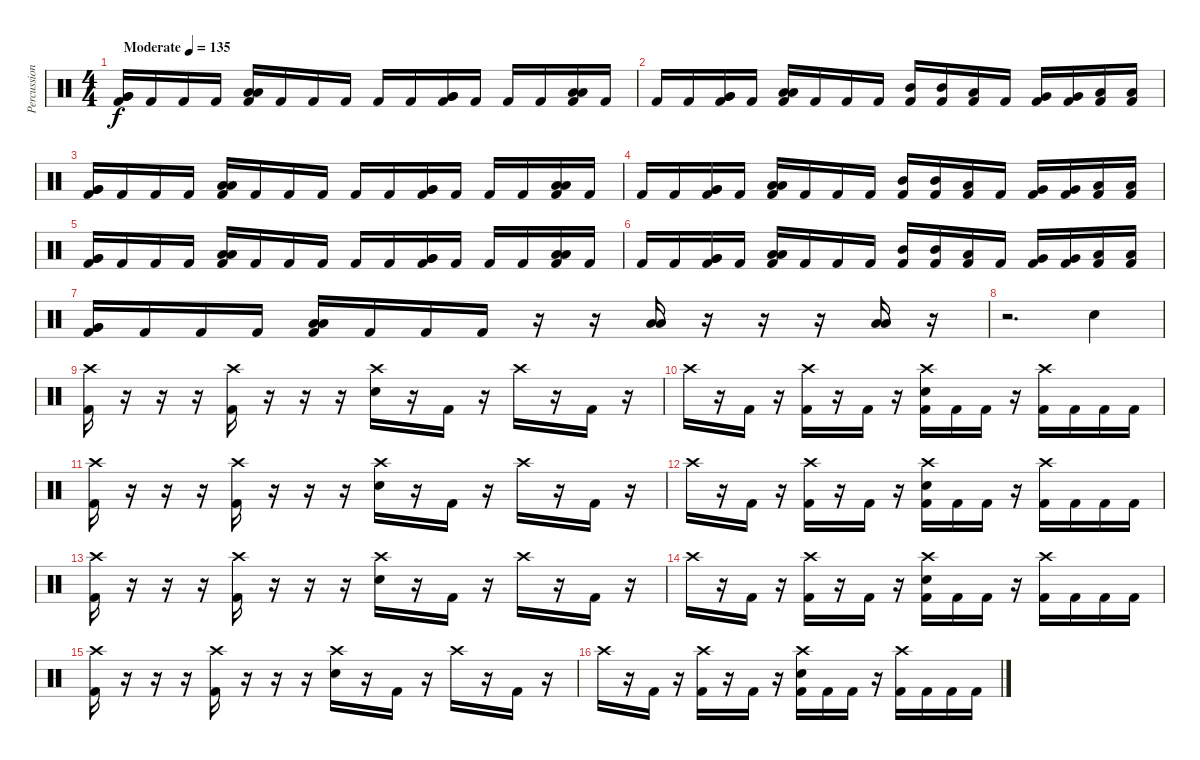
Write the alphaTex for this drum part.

\track ("Percussions" "Percussion") {instrument percussion}
\staff {score}
\articulation defaults
\ts (4 4)
\tempo (135 "Moderate")
\clef neutral
\ks c
("Very Low Tom (hit)" "Very Low Tom (hit)" "Kick (hit) 2").16{dy f} "Kick (hit) 2".16 "Kick (hit) 2".16 "Kick (hit) 2".16 ("Low Tom (hit)" "Low Tom (hit)" "Kick (hit) 2").16 "Kick (hit) 2".16 "Kick (hit) 2".16 "Kick (hit) 2".16 "Kick (hit) 2".16 "Kick (hit) 2".16 ("Very Low Tom (hit)" "Very Low Tom (hit)" "Kick (hit) 2").16 "Kick (hit) 2".16 "Kick (hit) 2".16 "Kick (hit) 2".16 ("Low Tom (hit)" "Low Tom (hit)" "Kick (hit) 2").16 "Kick (hit) 2".16 |
"Kick (hit) 2".16 "Kick (hit) 2".16 ("Very Low Tom (hit)" "Very Low Tom (hit)" "Kick (hit) 2").16 "Kick (hit) 2".16 ("Low Tom (hit)" "Low Tom (hit)" "Kick (hit) 2").16 "Kick (hit) 2".16 "Kick (hit) 2".16 "Kick (hit) 2".16 ("Mid Tom (hit)" "Kick (hit) 2").16 ("Mid Tom (hit)" "Kick (hit) 2").16 ("Low Tom (hit)" "Kick (hit) 2").16 "Kick (hit) 2".16 ("Very Low Tom (hit)" "Kick (hit) 2").16 ("Very Low Tom (hit)" "Kick (hit) 2").16 ("Low Floor Tom (hit)" "Kick (hit) 2").16 ("Low Floor Tom (hit)" "Kick (hit) 2").16 |
("Very Low Tom (hit)" "Very Low Tom (hit)" "Kick (hit) 2").16 "Kick (hit) 2".16 "Kick (hit) 2".16 "Kick (hit) 2".16 ("Low Tom (hit)" "Low Tom (hit)" "Kick (hit) 2").16 "Kick (hit) 2".16 "Kick (hit) 2".16 "Kick (hit) 2".16 "Kick (hit) 2".16 "Kick (hit) 2".16 ("Very Low Tom (hit)" "Very Low Tom (hit)" "Kick (hit) 2").16 "Kick (hit) 2".16 "Kick (hit) 2".16 "Kick (hit) 2".16 ("Low Tom (hit)" "Low Tom (hit)" "Kick (hit) 2").16 "Kick (hit) 2".16 |
"Kick (hit) 2".16 "Kick (hit) 2".16 ("Very Low Tom (hit)" "Very Low Tom (hit)" "Kick (hit) 2").16 "Kick (hit) 2".16 ("Low Tom (hit)" "Low Tom (hit)" "Kick (hit) 2").16 "Kick (hit) 2".16 "Kick (hit) 2".16 "Kick (hit) 2".16 ("Mid Tom (hit)" "Kick (hit) 2").16 ("Mid Tom (hit)" "Kick (hit) 2").16 ("Low Tom (hit)" "Kick (hit) 2").16 "Kick (hit) 2".16 ("Very Low Tom (hit)" "Kick (hit) 2").16 ("Very Low Tom (hit)" "Kick (hit) 2").16 ("Low Floor Tom (hit)" "Kick (hit) 2").16 ("Low Floor Tom (hit)" "Kick (hit) 2").16 |
("Very Low Tom (hit)" "Very Low Tom (hit)" "Kick (hit) 2").16 "Kick (hit) 2".16 "Kick (hit) 2".16 "Kick (hit) 2".16 ("Low Tom (hit)" "Low Tom (hit)" "Kick (hit) 2").16 "Kick (hit) 2".16 "Kick (hit) 2".16 "Kick (hit) 2".16 "Kick (hit) 2".16 "Kick (hit) 2".16 ("Very Low Tom (hit)" "Very Low Tom (hit)" "Kick (hit) 2").16 "Kick (hit) 2".16 "Kick (hit) 2".16 "Kick (hit) 2".16 ("Low Tom (hit)" "Low Tom (hit)" "Kick (hit) 2").16 "Kick (hit) 2".16 |
"Kick (hit) 2".16 "Kick (hit) 2".16 ("Very Low Tom (hit)" "Very Low Tom (hit)" "Kick (hit) 2").16 "Kick (hit) 2".16 ("Low Tom (hit)" "Low Tom (hit)" "Kick (hit) 2").16 "Kick (hit) 2".16 "Kick (hit) 2".16 "Kick (hit) 2".16 ("Mid Tom (hit)" "Kick (hit) 2").16 ("Mid Tom (hit)" "Kick (hit) 2").16 ("Low Tom (hit)" "Kick (hit) 2").16 "Kick (hit) 2".16 ("Very Low Tom (hit)" "Kick (hit) 2").16 ("Very Low Tom (hit)" "Kick (hit) 2").16 ("Low Floor Tom (hit)" "Kick (hit) 2").16 ("Low Floor Tom (hit)" "Kick (hit) 2").16 |
("Very Low Tom (hit)" "Very Low Tom (hit)" "Kick (hit) 2").16 "Kick (hit) 2".16 "Kick (hit) 2".16 "Kick (hit) 2".16 ("Low Tom (hit)" "Low Tom (hit)" "Kick (hit) 2").16 "Kick (hit) 2".16 "Kick (hit) 2".16 "Kick (hit) 2".16 r.16 r.16 ("Low Floor Tom (hit)" "Low Floor Tom (hit)").16 r.16 r.16 r.16 ("Low Floor Tom (hit)" "Low Floor Tom (hit)").16 r.16 |
r.2{d} "Electric Snare (hit)".4 |
("Crash high (hit)" "Kick (hit) 2").16 r.16 r.16 r.16 ("Crash high (hit)" "Kick (hit) 2").16 r.16 r.16 r.16 ("Crash high (hit)" "Electric Snare (hit)").16 r.16 "Kick (hit) 2".16 r.16 "Crash high (hit)".16 r.16 "Kick (hit) 2".16 r.16 |
"Crash high (hit)".16 r.16 "Kick (hit) 2".16 r.16 ("Crash high (hit)" "Kick (hit) 2").16 r.16 "Kick (hit) 2".16 r.16 ("Crash high (hit)" "Electric Snare (hit)" "Kick (hit) 2").16 "Kick (hit) 2".16 "Kick (hit) 2".16 r.16 ("Crash high (hit)" "Kick (hit) 2").16 "Kick (hit) 2".16 "Kick (hit) 2".16 "Kick (hit) 2".16 |
("Crash high (hit)" "Kick (hit) 2").16 r.16 r.16 r.16 ("Crash high (hit)" "Kick (hit) 2").16 r.16 r.16 r.16 ("Crash high (hit)" "Electric Snare (hit)").16 r.16 "Kick (hit) 2".16 r.16 "Crash high (hit)".16 r.16 "Kick (hit) 2".16 r.16 |
"Crash high (hit)".16 r.16 "Kick (hit) 2".16 r.16 ("Crash high (hit)" "Kick (hit) 2").16 r.16 "Kick (hit) 2".16 r.16 ("Crash high (hit)" "Electric Snare (hit)" "Kick (hit) 2").16 "Kick (hit) 2".16 "Kick (hit) 2".16 r.16 ("Crash high (hit)" "Kick (hit) 2").16 "Kick (hit) 2".16 "Kick (hit) 2".16 "Kick (hit) 2".16 |
("Crash high (hit)" "Kick (hit) 2").16 r.16 r.16 r.16 ("Crash high (hit)" "Kick (hit) 2").16 r.16 r.16 r.16 ("Crash high (hit)" "Electric Snare (hit)").16 r.16 "Kick (hit) 2".16 r.16 "Crash high (hit)".16 r.16 "Kick (hit) 2".16 r.16 |
"Crash high (hit)".16 r.16 "Kick (hit) 2".16 r.16 ("Crash high (hit)" "Kick (hit) 2").16 r.16 "Kick (hit) 2".16 r.16 ("Crash high (hit)" "Electric Snare (hit)" "Kick (hit) 2").16 "Kick (hit) 2".16 "Kick (hit) 2".16 r.16 ("Crash high (hit)" "Kick (hit) 2").16 "Kick (hit) 2".16 "Kick (hit) 2".16 "Kick (hit) 2".16 |
("Crash high (hit)" "Kick (hit) 2").16 r.16 r.16 r.16 ("Crash high (hit)" "Kick (hit) 2").16 r.16 r.16 r.16 ("Crash high (hit)" "Electric Snare (hit)").16 r.16 "Kick (hit) 2".16 r.16 "Crash high (hit)".16 r.16 "Kick (hit) 2".16 r.16 |
"Crash high (hit)".16 r.16 "Kick (hit) 2".16 r.16 ("Crash high (hit)" "Kick (hit) 2").16 r.16 "Kick (hit) 2".16 r.16 ("Crash high (hit)" "Electric Snare (hit)" "Kick (hit) 2").16 "Kick (hit) 2".16 "Kick (hit) 2".16 r.16 ("Crash high (hit)" "Kick (hit) 2").16 "Kick (hit) 2".16 "Kick (hit) 2".16 "Kick (hit) 2".16
